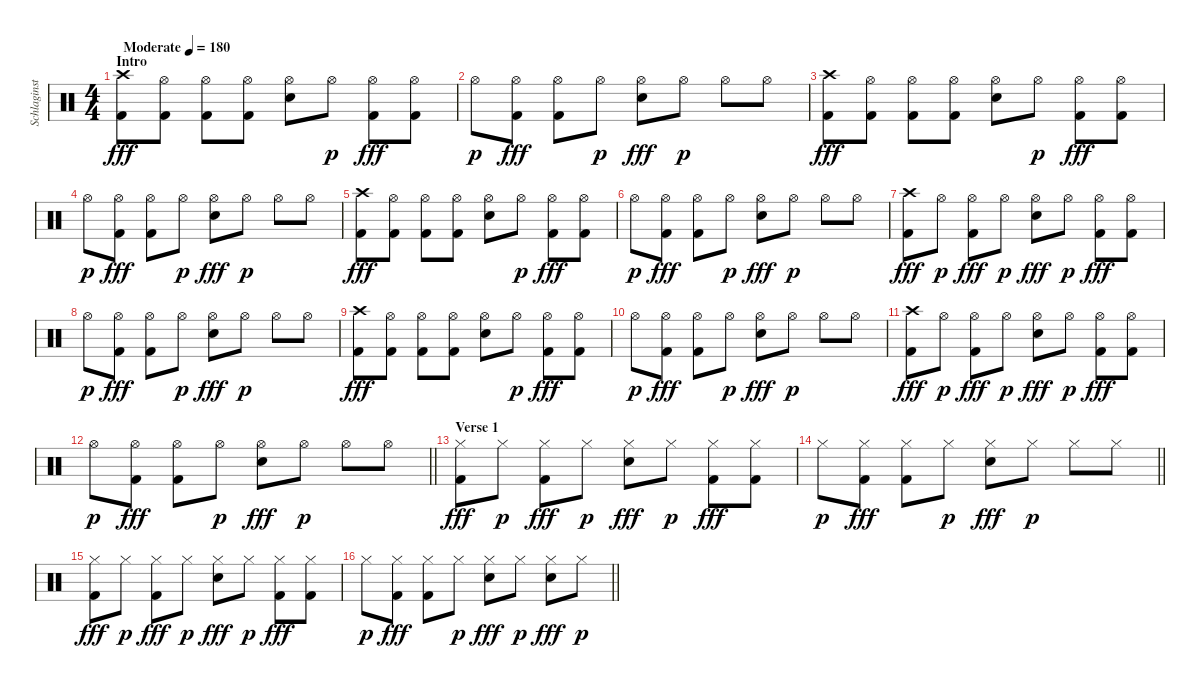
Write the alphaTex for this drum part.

\track ("Schlaginstrumente - Auswahl" "Schlaginst") {instrument percussion}
\staff {score}
\articulation defaults
\ts (4 4)
\section ("" "Intro")
\tempo (180 "Moderate")
\clef neutral
\ks c
("Crash high (hit)" "Kick (hit) 2").8{dy fff} ("Hi-Hat (open)" "Kick (hit) 2").8 ("Hi-Hat (open)" "Kick (hit) 2").8 ("Hi-Hat (open)" "Kick (hit) 2").8 ("Hi-Hat (open)" "Snare (hit) 2").8 "Hi-Hat (open)".8{dy p} ("Hi-Hat (open)" "Kick (hit) 2").8{dy fff} ("Hi-Hat (open)" "Kick (hit) 2").8 |
"Hi-Hat (open)".8{dy p} ("Hi-Hat (open)" "Kick (hit) 2").8{dy fff} ("Hi-Hat (open)" "Kick (hit) 2").8 "Hi-Hat (open)".8{dy p} ("Hi-Hat (open)" "Snare (hit) 2").8{dy fff} "Hi-Hat (open)".8{dy p} "Hi-Hat (open)".8 "Hi-Hat (open)".8 |
("Crash high (hit)" "Kick (hit) 2").8{dy fff} ("Hi-Hat (open)" "Kick (hit) 2").8 ("Hi-Hat (open)" "Kick (hit) 2").8 ("Hi-Hat (open)" "Kick (hit) 2").8 ("Hi-Hat (open)" "Snare (hit) 2").8 "Hi-Hat (open)".8{dy p} ("Hi-Hat (open)" "Kick (hit) 2").8{dy fff} ("Hi-Hat (open)" "Kick (hit) 2").8 |
"Hi-Hat (open)".8{dy p} ("Hi-Hat (open)" "Kick (hit) 2").8{dy fff} ("Hi-Hat (open)" "Kick (hit) 2").8 "Hi-Hat (open)".8{dy p} ("Hi-Hat (open)" "Snare (hit) 2").8{dy fff} "Hi-Hat (open)".8{dy p} "Hi-Hat (open)".8 "Hi-Hat (open)".8 |
("Crash high (hit)" "Kick (hit) 2").8{dy fff} ("Hi-Hat (open)" "Kick (hit) 2").8 ("Hi-Hat (open)" "Kick (hit) 2").8 ("Hi-Hat (open)" "Kick (hit) 2").8 ("Hi-Hat (open)" "Snare (hit) 2").8 "Hi-Hat (open)".8{dy p} ("Hi-Hat (open)" "Kick (hit) 2").8{dy fff} ("Hi-Hat (open)" "Kick (hit) 2").8 |
"Hi-Hat (open)".8{dy p} ("Hi-Hat (open)" "Kick (hit) 2").8{dy fff} ("Hi-Hat (open)" "Kick (hit) 2").8 "Hi-Hat (open)".8{dy p} ("Hi-Hat (open)" "Snare (hit) 2").8{dy fff} "Hi-Hat (open)".8{dy p} "Hi-Hat (open)".8 "Hi-Hat (open)".8 |
("Crash high (hit)" "Kick (hit) 2").8{dy fff} "Hi-Hat (open)".8{dy p} ("Hi-Hat (open)" "Kick (hit) 2").8{dy fff} "Hi-Hat (open)".8{dy p} ("Hi-Hat (open)" "Snare (hit) 2").8{dy fff} "Hi-Hat (open)".8{dy p} ("Hi-Hat (open)" "Kick (hit) 2").8{dy fff} ("Hi-Hat (open)" "Kick (hit) 2").8 |
"Hi-Hat (open)".8{dy p} ("Hi-Hat (open)" "Kick (hit) 2").8{dy fff} ("Hi-Hat (open)" "Kick (hit) 2").8 "Hi-Hat (open)".8{dy p} ("Hi-Hat (open)" "Snare (hit) 2").8{dy fff} "Hi-Hat (open)".8{dy p} "Hi-Hat (open)".8 "Hi-Hat (open)".8 |
("Crash high (hit)" "Kick (hit) 2").8{dy fff} ("Hi-Hat (open)" "Kick (hit) 2").8 ("Hi-Hat (open)" "Kick (hit) 2").8 ("Hi-Hat (open)" "Kick (hit) 2").8 ("Hi-Hat (open)" "Snare (hit) 2").8 "Hi-Hat (open)".8{dy p} ("Hi-Hat (open)" "Kick (hit) 2").8{dy fff} ("Hi-Hat (open)" "Kick (hit) 2").8 |
"Hi-Hat (open)".8{dy p} ("Hi-Hat (open)" "Kick (hit) 2").8{dy fff} ("Hi-Hat (open)" "Kick (hit) 2").8 "Hi-Hat (open)".8{dy p} ("Hi-Hat (open)" "Snare (hit) 2").8{dy fff} "Hi-Hat (open)".8{dy p} "Hi-Hat (open)".8 "Hi-Hat (open)".8 |
("Crash high (hit)" "Kick (hit) 2").8{dy fff} "Hi-Hat (open)".8{dy p} ("Hi-Hat (open)" "Kick (hit) 2").8{dy fff} "Hi-Hat (open)".8{dy p} ("Hi-Hat (open)" "Snare (hit) 2").8{dy fff} "Hi-Hat (open)".8{dy p} ("Hi-Hat (open)" "Kick (hit) 2").8{dy fff} ("Hi-Hat (open)" "Kick (hit) 2").8 |
\barLineRight lightlight "Hi-Hat (open)".8{dy p}
("Hi-Hat (open)" "Kick (hit) 2").8{dy fff} ("Hi-Hat (open)" "Kick (hit) 2").8 "Hi-Hat (open)".8{dy p} ("Hi-Hat (open)" "Snare (hit) 2").8{dy fff} "Hi-Hat (open)".8{dy p} "Hi-Hat (open)".8 "Hi-Hat (open)".8 |
\section ("" "Verse 1")
("Hi-Hat (closed)" "Kick (hit) 2").8{dy fff} "Hi-Hat (closed)".8{dy p} ("Hi-Hat (closed)" "Kick (hit) 2").8{dy fff} "Hi-Hat (closed)".8{dy p} ("Hi-Hat (closed)" "Snare (hit) 2").8{dy fff} "Hi-Hat (closed)".8{dy p} ("Hi-Hat (closed)" "Kick (hit) 2").8{dy fff} ("Hi-Hat (closed)" "Kick (hit) 2").8 |
\barLineRight lightlight "Hi-Hat (closed)".8{dy p}
("Hi-Hat (closed)" "Kick (hit) 2").8{dy fff} ("Hi-Hat (closed)" "Kick (hit) 2").8 "Hi-Hat (closed)".8{dy p} ("Hi-Hat (closed)" "Snare (hit) 2").8{dy fff} "Hi-Hat (closed)".8{dy p} "Hi-Hat (closed)".8 "Hi-Hat (closed)".8 |
("Hi-Hat (closed)" "Kick (hit) 2").8{dy fff} "Hi-Hat (closed)".8{dy p} ("Hi-Hat (closed)" "Kick (hit) 2").8{dy fff} "Hi-Hat (closed)".8{dy p} ("Hi-Hat (closed)" "Snare (hit) 2").8{dy fff} "Hi-Hat (closed)".8{dy p} ("Hi-Hat (closed)" "Kick (hit) 2").8{dy fff} ("Hi-Hat (closed)" "Kick (hit) 2").8 |
\barLineRight lightlight "Hi-Hat (closed)".8{dy p}
("Hi-Hat (closed)" "Kick (hit) 2").8{dy fff} ("Hi-Hat (closed)" "Kick (hit) 2").8 "Hi-Hat (closed)".8{dy p} ("Hi-Hat (closed)" "Snare (hit) 2").8{dy fff} "Hi-Hat (closed)".8{dy p} ("Hi-Hat (closed)" "Snare (hit) 2").8{dy fff} "Hi-Hat (closed)".8{dy p}
